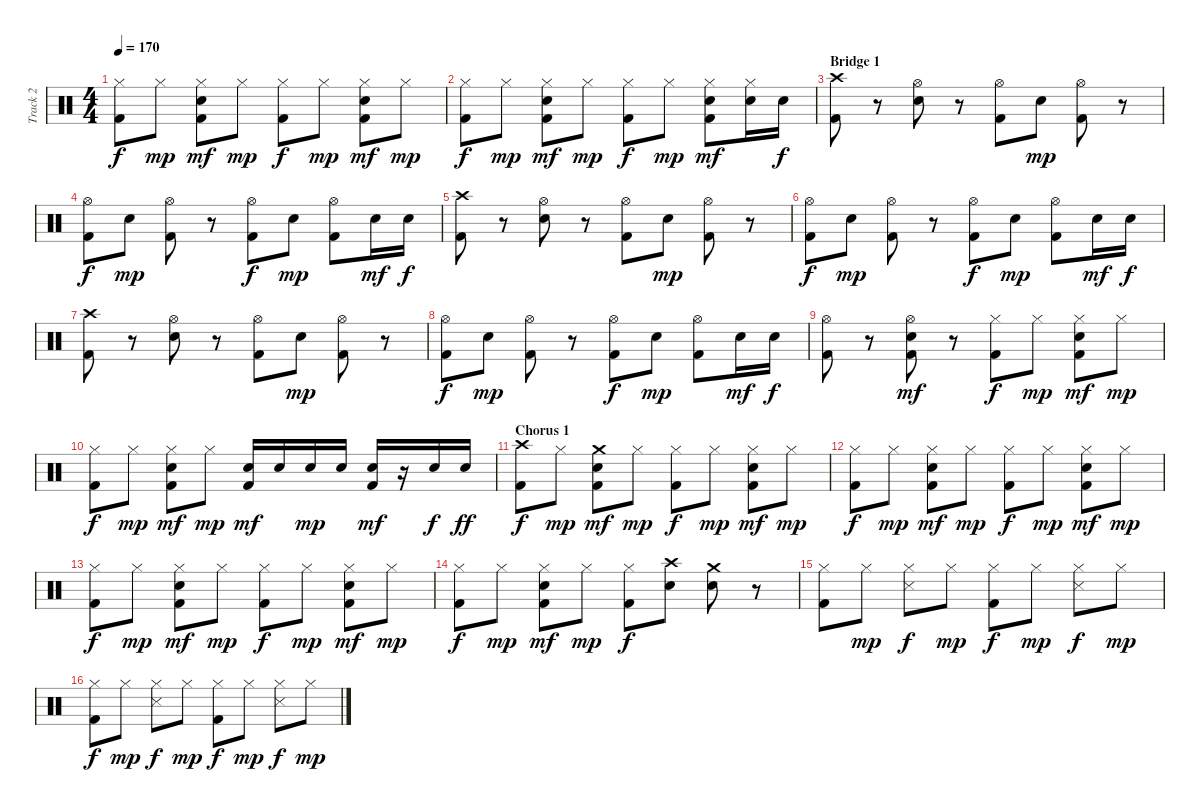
\track ("Track 2" "Track 2") {instrument percussion}
\staff {score}
\articulation defaults
\ts (4 4)
\tempo 170
\clef neutral
\ks c
("Hi-Hat (closed)" "Kick (hit) 2").8{dy f} "Hi-Hat (closed)".8{dy mp} ("Hi-Hat (closed)" "Electric Snare (hit)" "Kick (hit) 2").8{dy mf} "Hi-Hat (closed)".8{dy mp} ("Hi-Hat (closed)" "Kick (hit) 2").8{dy f} "Hi-Hat (closed)".8{dy mp} ("Hi-Hat (closed)" "Electric Snare (hit)" "Kick (hit) 2").8{dy mf} "Hi-Hat (closed)".8{dy mp} |
("Hi-Hat (closed)" "Kick (hit) 2").8{dy f} "Hi-Hat (closed)".8{dy mp} ("Hi-Hat (closed)" "Electric Snare (hit)" "Kick (hit) 2").8{dy mf} "Hi-Hat (closed)".8{dy mp} ("Hi-Hat (closed)" "Kick (hit) 2").8{dy f} "Hi-Hat (closed)".8{dy mp} ("Hi-Hat (closed)" "Electric Snare (hit)" "Kick (hit) 2").8{dy mf} ("Hi-Hat (closed)" "Electric Snare (hit)").16 "Electric Snare (hit)".16{dy f} |
\section ("" "Bridge 1")
("Crash high (hit)" "Kick (hit) 2").8 r.8 ("Hi-Hat (open)" "Electric Snare (hit)").8 r.8 ("Hi-Hat (open)" "Kick (hit) 2").8 "Electric Snare (hit)".8{dy mp} ("Hi-Hat (open)" "Kick (hit) 2").8 r.8 |
("Hi-Hat (open)" "Kick (hit) 2").8{dy f} "Electric Snare (hit)".8{dy mp} ("Hi-Hat (open)" "Kick (hit) 2").8 r.8 ("Hi-Hat (open)" "Kick (hit) 2").8{dy f} "Electric Snare (hit)".8{dy mp} ("Hi-Hat (open)" "Kick (hit) 2").8 "Electric Snare (hit)".16{dy mf} "Electric Snare (hit)".16{dy f} |
("Crash high (hit)" "Kick (hit) 2").8 r.8 ("Hi-Hat (open)" "Electric Snare (hit)").8 r.8 ("Hi-Hat (open)" "Kick (hit) 2").8 "Electric Snare (hit)".8{dy mp} ("Hi-Hat (open)" "Kick (hit) 2").8 r.8 |
("Hi-Hat (open)" "Kick (hit) 2").8{dy f} "Electric Snare (hit)".8{dy mp} ("Hi-Hat (open)" "Kick (hit) 2").8 r.8 ("Hi-Hat (open)" "Kick (hit) 2").8{dy f} "Electric Snare (hit)".8{dy mp} ("Hi-Hat (open)" "Kick (hit) 2").8 "Electric Snare (hit)".16{dy mf} "Electric Snare (hit)".16{dy f} |
("Crash high (hit)" "Kick (hit) 2").8 r.8 ("Hi-Hat (open)" "Electric Snare (hit)").8 r.8 ("Hi-Hat (open)" "Kick (hit) 2").8 "Electric Snare (hit)".8{dy mp} ("Hi-Hat (open)" "Kick (hit) 2").8 r.8 |
("Hi-Hat (open)" "Kick (hit) 2").8{dy f} "Electric Snare (hit)".8{dy mp} ("Hi-Hat (open)" "Kick (hit) 2").8 r.8 ("Hi-Hat (open)" "Kick (hit) 2").8{dy f} "Electric Snare (hit)".8{dy mp} ("Hi-Hat (open)" "Kick (hit) 2").8 "Electric Snare (hit)".16{dy mf} "Electric Snare (hit)".16{dy f} |
("Hi-Hat (open)" "Kick (hit) 2").8 r.8 ("Hi-Hat (open)" "Electric Snare (hit)" "Kick (hit) 2").8{dy mf} r.8 ("Hi-Hat (closed)" "Kick (hit) 2").8{dy f} "Hi-Hat (closed)".8{dy mp} ("Hi-Hat (closed)" "Electric Snare (hit)" "Kick (hit) 2").8{dy mf} "Hi-Hat (closed)".8{dy mp} |
("Hi-Hat (closed)" "Kick (hit) 2").8{dy f} "Hi-Hat (closed)".8{dy mp} ("Hi-Hat (closed)" "Electric Snare (hit)" "Kick (hit) 2").8{dy mf} "Hi-Hat (closed)".8{dy mp} ("Electric Snare (hit)" "Kick (hit) 2").16{dy mf} "Electric Snare (hit)".16 "Electric Snare (hit)".16{dy mp} "Electric Snare (hit)".16 ("Electric Snare (hit)" "Kick (hit) 2").16{dy mf} r.16 "Electric Snare (hit)".16{dy f} "Electric Snare (hit)".16{dy ff} |
\section ("" "Chorus 1")
("Crash high (hit)" "Kick (hit) 2").8{dy f} "Hi-Hat (closed)".8{dy mp} ("Crash medium (hit)" "Electric Snare (hit)" "Kick (hit) 2").8{dy mf} "Hi-Hat (closed)".8{dy mp} ("Hi-Hat (closed)" "Kick (hit) 2").8{dy f} "Hi-Hat (closed)".8{dy mp} ("Hi-Hat (closed)" "Electric Snare (hit)" "Kick (hit) 2").8{dy mf} "Hi-Hat (closed)".8{dy mp} |
("Hi-Hat (closed)" "Kick (hit) 2").8{dy f} "Hi-Hat (closed)".8{dy mp} ("Hi-Hat (closed)" "Electric Snare (hit)" "Kick (hit) 2").8{dy mf} "Hi-Hat (closed)".8{dy mp} ("Hi-Hat (closed)" "Kick (hit) 2").8{dy f} "Hi-Hat (closed)".8{dy mp} ("Hi-Hat (closed)" "Electric Snare (hit)" "Kick (hit) 2").8{dy mf} "Hi-Hat (closed)".8{dy mp} |
("Hi-Hat (closed)" "Kick (hit) 2").8{dy f} "Hi-Hat (closed)".8{dy mp} ("Hi-Hat (closed)" "Electric Snare (hit)" "Kick (hit) 2").8{dy mf} "Hi-Hat (closed)".8{dy mp} ("Hi-Hat (closed)" "Kick (hit) 2").8{dy f} "Hi-Hat (closed)".8{dy mp} ("Hi-Hat (closed)" "Electric Snare (hit)" "Kick (hit) 2").8{dy mf} "Hi-Hat (closed)".8{dy mp} |
("Hi-Hat (closed)" "Kick (hit) 2").8{dy f} "Hi-Hat (closed)".8{dy mp} ("Hi-Hat (closed)" "Electric Snare (hit)" "Kick (hit) 2").8{dy mf} "Hi-Hat (closed)".8{dy mp} ("Hi-Hat (closed)" "Kick (hit) 2").8{dy f} ("Crash high (hit)" "Electric Snare (hit)").8 ("Crash medium (hit)" "Electric Snare (hit)").8 r.8 |
("Hi-Hat (closed)" "Kick (hit) 2").8 "Hi-Hat (closed)".8{dy mp} ("Hi-Hat (closed)" "Snare (side stick) 3").8{dy f} "Hi-Hat (closed)".8{dy mp} ("Hi-Hat (closed)" "Kick (hit) 2").8{dy f} "Hi-Hat (closed)".8{dy mp} ("Hi-Hat (closed)" "Snare (side stick) 3").8{dy f} "Hi-Hat (closed)".8{dy mp} |
("Hi-Hat (closed)" "Kick (hit) 2").8{dy f} "Hi-Hat (closed)".8{dy mp} ("Hi-Hat (closed)" "Snare (side stick) 3").8{dy f} "Hi-Hat (closed)".8{dy mp} ("Hi-Hat (closed)" "Kick (hit) 2").8{dy f} "Hi-Hat (closed)".8{dy mp} ("Hi-Hat (closed)" "Snare (side stick) 3").8{dy f} "Hi-Hat (closed)".8{dy mp}
